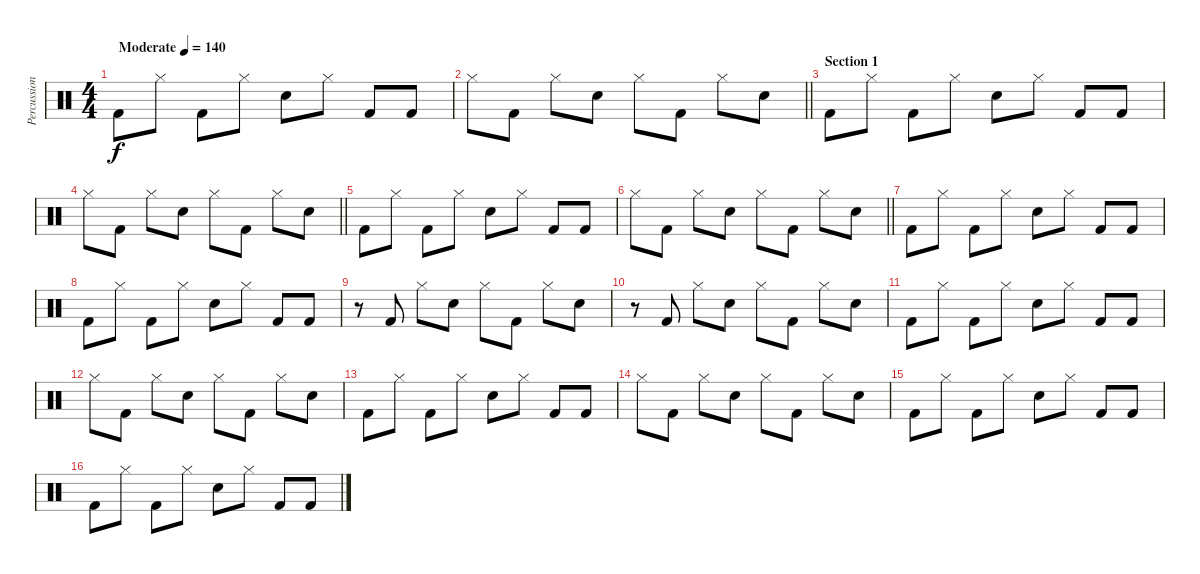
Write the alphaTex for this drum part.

\track ("Percussion" "Percussion") {instrument percussion}
\staff {score}
\articulation defaults
\ts (4 4)
\tempo (140 "Moderate")
\clef neutral
\ks c "Kick (hit) 2".8{dy f} "Hi-Hat (closed)".8 "Kick (hit) 2".8 "Hi-Hat (closed)".8 "Electric Snare (hit)".8 "Hi-Hat (closed)".8 "Kick (hit) 2".8 "Kick (hit) 2".8
|
\barLineRight lightlight "Hi-Hat (closed)".8 "Kick (hit) 2".8 "Hi-Hat (closed)".8 "Electric Snare (hit)".8 "Hi-Hat (closed)".8 "Kick (hit) 2".8 "Hi-Hat (closed)".8 "Electric Snare (hit)".8
|
\section ("" "Section 1")
"Kick (hit) 2".8 "Hi-Hat (closed)".8 "Kick (hit) 2".8 "Hi-Hat (closed)".8 "Electric Snare (hit)".8 "Hi-Hat (closed)".8 "Kick (hit) 2".8 "Kick (hit) 2".8 |
\barLineRight lightlight "Hi-Hat (closed)".8 "Kick (hit) 2".8 "Hi-Hat (closed)".8 "Electric Snare (hit)".8 "Hi-Hat (closed)".8 "Kick (hit) 2".8 "Hi-Hat (closed)".8 "Electric Snare (hit)".8
|
"Kick (hit) 2".8 "Hi-Hat (closed)".8 "Kick (hit) 2".8 "Hi-Hat (closed)".8 "Electric Snare (hit)".8 "Hi-Hat (closed)".8 "Kick (hit) 2".8 "Kick (hit) 2".8 |
\barLineRight lightlight "Hi-Hat (closed)".8 "Kick (hit) 2".8 "Hi-Hat (closed)".8 "Electric Snare (hit)".8 "Hi-Hat (closed)".8 "Kick (hit) 2".8 "Hi-Hat (closed)".8 "Electric Snare (hit)".8
|
"Kick (hit) 2".8 "Hi-Hat (closed)".8 "Kick (hit) 2".8 "Hi-Hat (closed)".8 "Electric Snare (hit)".8 "Hi-Hat (closed)".8 "Kick (hit) 2".8 "Kick (hit) 2".8 |
"Kick (hit) 2".8 "Hi-Hat (closed)".8 "Kick (hit) 2".8 "Hi-Hat (closed)".8 "Electric Snare (hit)".8 "Hi-Hat (closed)".8 "Kick (hit) 2".8 "Kick (hit) 2".8 |
r.8 "Kick (hit) 2".8 "Hi-Hat (closed)".8 "Electric Snare (hit)".8 "Hi-Hat (closed)".8 "Kick (hit) 2".8 "Hi-Hat (closed)".8 "Electric Snare (hit)".8 |
r.8 "Kick (hit) 2".8 "Hi-Hat (closed)".8 "Electric Snare (hit)".8 "Hi-Hat (closed)".8 "Kick (hit) 2".8 "Hi-Hat (closed)".8 "Electric Snare (hit)".8 |
"Kick (hit) 2".8 "Hi-Hat (closed)".8 "Kick (hit) 2".8 "Hi-Hat (closed)".8 "Electric Snare (hit)".8 "Hi-Hat (closed)".8 "Kick (hit) 2".8 "Kick (hit) 2".8 |
"Hi-Hat (closed)".8 "Kick (hit) 2".8 "Hi-Hat (closed)".8 "Electric Snare (hit)".8 "Hi-Hat (closed)".8 "Kick (hit) 2".8 "Hi-Hat (closed)".8 "Electric Snare (hit)".8 |
"Kick (hit) 2".8 "Hi-Hat (closed)".8 "Kick (hit) 2".8 "Hi-Hat (closed)".8 "Electric Snare (hit)".8 "Hi-Hat (closed)".8 "Kick (hit) 2".8 "Kick (hit) 2".8 |
"Hi-Hat (closed)".8 "Kick (hit) 2".8 "Hi-Hat (closed)".8 "Electric Snare (hit)".8 "Hi-Hat (closed)".8 "Kick (hit) 2".8 "Hi-Hat (closed)".8 "Electric Snare (hit)".8 |
"Kick (hit) 2".8 "Hi-Hat (closed)".8 "Kick (hit) 2".8 "Hi-Hat (closed)".8 "Electric Snare (hit)".8 "Hi-Hat (closed)".8 "Kick (hit) 2".8 "Kick (hit) 2".8 |
"Kick (hit) 2".8 "Hi-Hat (closed)".8 "Kick (hit) 2".8 "Hi-Hat (closed)".8 "Electric Snare (hit)".8 "Hi-Hat (closed)".8 "Kick (hit) 2".8 "Kick (hit) 2".8
